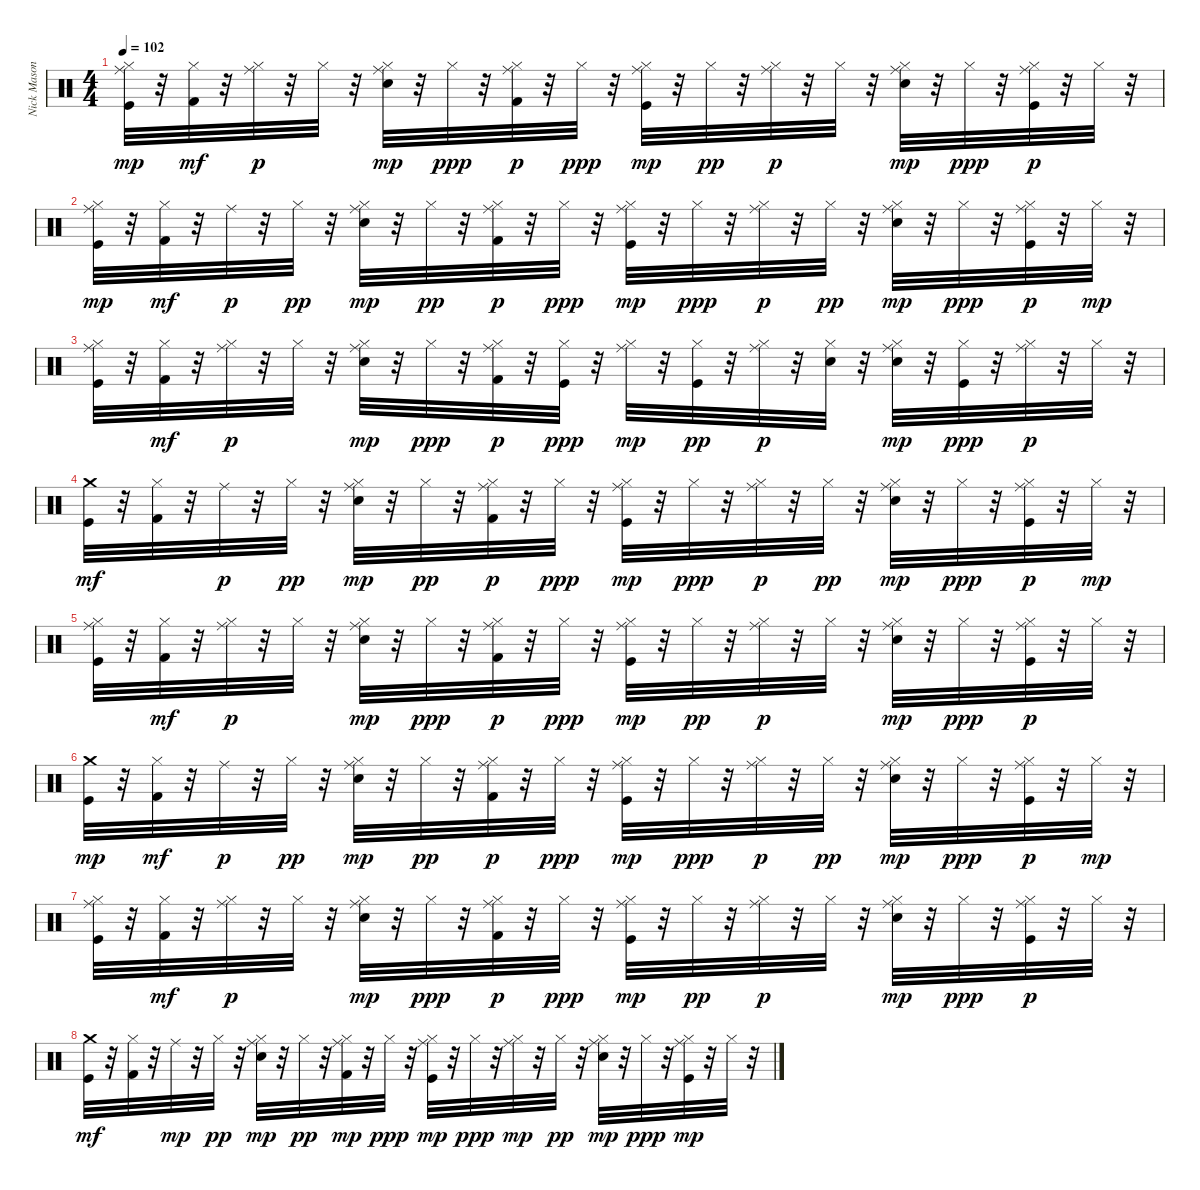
\track ("Nick Mason / Gary Wallis" "Nick Mason") {instrument percussion}
\staff {score}
\articulation defaults
\ts (4 4)
\tempo 102
\clef neutral
\ks c
("Kick (hit)" "Hi-Hat (closed)" "Ride (middle)").32{dy mp} r.32 ("Hi-Hat (closed)" "Kick (hit) 2").32{dy mf} r.32 ("Hi-Hat (closed)" "Ride (middle)").32{dy p} r.32 "Hi-Hat (closed)".32 r.32 ("Electric Snare (hit)" "Hi-Hat (closed)" "Ride (middle)").32{dy mp} r.32 "Hi-Hat (closed)".32{dy ppp} r.32 ("Kick (hit) 2" "Hi-Hat (closed)" "Ride (middle)").32{dy p} r.32 "Hi-Hat (closed)".32{dy ppp} r.32 ("Kick (hit)" "Hi-Hat (closed)" "Ride (middle)").32{dy mp} r.32 "Hi-Hat (closed)".32{dy pp} r.32 ("Hi-Hat (closed)" "Ride (middle)").32{dy p} r.32 "Hi-Hat (closed)".32 r.32 ("Electric Snare (hit)" "Hi-Hat (closed)" "Ride (middle)").32{dy mp} r.32 "Hi-Hat (closed)".32{dy ppp} r.32 ("Kick (hit)" "Hi-Hat (closed)" "Ride (middle)").32{dy p} r.32 "Hi-Hat (closed)".32 r.32 |
("Kick (hit)" "Hi-Hat (closed)" "Ride (middle)").32{dy mp} r.32 ("Hi-Hat (closed)" "Kick (hit) 2").32{dy mf} r.32 "Ride (middle)".32{dy p} r.32 "Hi-Hat (closed)".32{dy pp} r.32 ("Electric Snare (hit)" "Hi-Hat (closed)" "Ride (middle)").32{dy mp} r.32 "Hi-Hat (closed)".32{dy pp} r.32 ("Kick (hit) 2" "Hi-Hat (closed)" "Ride (middle)").32{dy p} r.32 "Hi-Hat (closed)".32{dy ppp} r.32 ("Kick (hit)" "Hi-Hat (closed)" "Ride (middle)").32{dy mp} r.32 "Hi-Hat (closed)".32{dy ppp} r.32 ("Hi-Hat (closed)" "Ride (middle)").32{dy p} r.32 "Hi-Hat (closed)".32{dy pp} r.32 ("Electric Snare (hit)" "Hi-Hat (closed)" "Ride (middle)").32{dy mp} r.32 "Hi-Hat (closed)".32{dy ppp} r.32 ("Kick (hit)" "Hi-Hat (closed)" "Ride (middle)").32{dy p} r.32 "Hi-Hat (closed)".32{dy mp} r.32 |
("Kick (hit)" "Hi-Hat (closed)" "Ride (middle)").32 r.32 ("Hi-Hat (closed)" "Kick (hit) 2").32{dy mf} r.32 ("Hi-Hat (closed)" "Ride (middle)").32{dy p} r.32 "Hi-Hat (closed)".32 r.32 ("Electric Snare (hit)" "Hi-Hat (closed)" "Ride (middle)").32{dy mp} r.32 "Hi-Hat (closed)".32{dy ppp} r.32 ("Kick (hit) 2" "Hi-Hat (closed)" "Ride (middle)").32{dy p} r.32 ("Kick (hit)" "Hi-Hat (closed)").32{dy ppp} r.32 ("Hi-Hat (closed)" "Ride (middle)").32{dy mp} r.32 ("Kick (hit)" "Hi-Hat (closed)").32{dy pp} r.32 ("Hi-Hat (closed)" "Ride (middle)").32{dy p} r.32 ("Electric Snare (hit)" "Hi-Hat (closed)").32 r.32 ("Electric Snare (hit)" "Hi-Hat (closed)" "Ride (middle)").32{dy mp} r.32 ("Kick (hit)" "Hi-Hat (closed)").32{dy ppp} r.32 ("Hi-Hat (closed)" "Ride (middle)").32{dy p} r.32 "Hi-Hat (closed)".32 r.32 |
("Kick (hit)" "Crash medium (hit)").32{dy mf} r.32 ("Hi-Hat (closed)" "Kick (hit) 2").32 r.32 "Ride (middle)".32{dy p} r.32 "Hi-Hat (closed)".32{dy pp} r.32 ("Electric Snare (hit)" "Hi-Hat (closed)" "Ride (middle)").32{dy mp} r.32 "Hi-Hat (closed)".32{dy pp} r.32 ("Kick (hit) 2" "Hi-Hat (closed)" "Ride (middle)").32{dy p} r.32 "Hi-Hat (closed)".32{dy ppp} r.32 ("Kick (hit)" "Hi-Hat (closed)" "Ride (middle)").32{dy mp} r.32 "Hi-Hat (closed)".32{dy ppp} r.32 ("Hi-Hat (closed)" "Ride (middle)").32{dy p} r.32 "Hi-Hat (closed)".32{dy pp} r.32 ("Electric Snare (hit)" "Hi-Hat (closed)" "Ride (middle)").32{dy mp} r.32 "Hi-Hat (closed)".32{dy ppp} r.32 ("Kick (hit)" "Hi-Hat (closed)" "Ride (middle)").32{dy p} r.32 "Hi-Hat (closed)".32{dy mp} r.32 |
("Kick (hit)" "Hi-Hat (closed)" "Ride (middle)").32 r.32 ("Hi-Hat (closed)" "Kick (hit) 2").32{dy mf} r.32 ("Hi-Hat (closed)" "Ride (middle)").32{dy p} r.32 "Hi-Hat (closed)".32 r.32 ("Electric Snare (hit)" "Hi-Hat (closed)" "Ride (middle)").32{dy mp} r.32 "Hi-Hat (closed)".32{dy ppp} r.32 ("Kick (hit) 2" "Hi-Hat (closed)" "Ride (middle)").32{dy p} r.32 "Hi-Hat (closed)".32{dy ppp} r.32 ("Kick (hit)" "Hi-Hat (closed)" "Ride (middle)").32{dy mp} r.32 "Hi-Hat (closed)".32{dy pp} r.32 ("Hi-Hat (closed)" "Ride (middle)").32{dy p} r.32 "Hi-Hat (closed)".32 r.32 ("Electric Snare (hit)" "Hi-Hat (closed)" "Ride (middle)").32{dy mp} r.32 "Hi-Hat (closed)".32{dy ppp} r.32 ("Kick (hit)" "Hi-Hat (closed)" "Ride (middle)").32{dy p} r.32 "Hi-Hat (closed)".32 r.32 |
("Kick (hit)" "Crash medium (hit)").32{dy mp} r.32 ("Hi-Hat (closed)" "Kick (hit) 2").32{dy mf} r.32 "Ride (middle)".32{dy p} r.32 "Hi-Hat (closed)".32{dy pp} r.32 ("Electric Snare (hit)" "Hi-Hat (closed)" "Ride (middle)").32{dy mp} r.32 "Hi-Hat (closed)".32{dy pp} r.32 ("Kick (hit) 2" "Hi-Hat (closed)" "Ride (middle)").32{dy p} r.32 "Hi-Hat (closed)".32{dy ppp} r.32 ("Kick (hit)" "Hi-Hat (closed)" "Ride (middle)").32{dy mp} r.32 "Hi-Hat (closed)".32{dy ppp} r.32 ("Hi-Hat (closed)" "Ride (middle)").32{dy p} r.32 "Hi-Hat (closed)".32{dy pp} r.32 ("Electric Snare (hit)" "Hi-Hat (closed)" "Ride (middle)").32{dy mp} r.32 "Hi-Hat (closed)".32{dy ppp} r.32 ("Kick (hit)" "Hi-Hat (closed)" "Ride (middle)").32{dy p} r.32 "Hi-Hat (closed)".32{dy mp} r.32 |
("Kick (hit)" "Hi-Hat (closed)" "Ride (middle)").32 r.32 ("Hi-Hat (closed)" "Kick (hit) 2").32{dy mf} r.32 ("Hi-Hat (closed)" "Ride (middle)").32{dy p} r.32 "Hi-Hat (closed)".32 r.32 ("Electric Snare (hit)" "Hi-Hat (closed)" "Ride (middle)").32{dy mp} r.32 "Hi-Hat (closed)".32{dy ppp} r.32 ("Kick (hit) 2" "Hi-Hat (closed)" "Ride (middle)").32{dy p} r.32 "Hi-Hat (closed)".32{dy ppp} r.32 ("Kick (hit)" "Hi-Hat (closed)" "Ride (middle)").32{dy mp} r.32 "Hi-Hat (closed)".32{dy pp} r.32 ("Hi-Hat (closed)" "Ride (middle)").32{dy p} r.32 "Hi-Hat (closed)".32 r.32 ("Electric Snare (hit)" "Hi-Hat (closed)" "Ride (middle)").32{dy mp} r.32 "Hi-Hat (closed)".32{dy ppp} r.32 ("Kick (hit)" "Hi-Hat (closed)" "Ride (middle)").32{dy p} r.32 "Hi-Hat (closed)".32 r.32 |
("Kick (hit)" "Crash medium (hit)").32{dy mf} r.32 ("Hi-Hat (closed)" "Kick (hit) 2").32 r.32 "Ride (middle)".32{dy mp} r.32 "Hi-Hat (closed)".32{dy pp} r.32 ("Electric Snare (hit)" "Hi-Hat (closed)" "Ride (middle)").32{dy mp} r.32 "Hi-Hat (closed)".32{dy pp} r.32 ("Kick (hit) 2" "Hi-Hat (closed)" "Ride (middle)").32{dy mp} r.32 "Hi-Hat (closed)".32{dy ppp} r.32 ("Kick (hit)" "Hi-Hat (closed)" "Ride (middle)").32{dy mp} r.32 "Hi-Hat (closed)".32{dy ppp} r.32 ("Hi-Hat (closed)" "Ride (middle)").32{dy mp} r.32 "Hi-Hat (closed)".32{dy pp} r.32 ("Electric Snare (hit)" "Hi-Hat (closed)" "Ride (middle)").32{dy mp} r.32 "Hi-Hat (closed)".32{dy ppp} r.32 ("Kick (hit)" "Hi-Hat (closed)" "Ride (middle)").32{dy mp} r.32 "Hi-Hat (closed)".32 r.32
